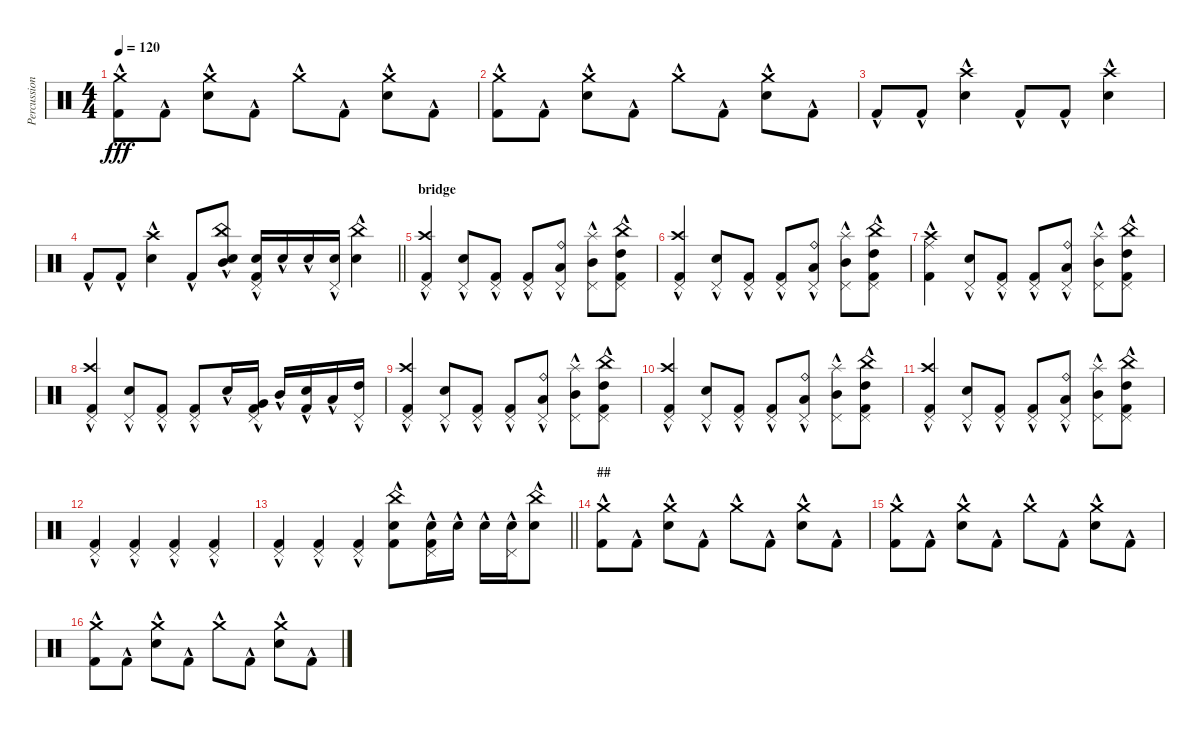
\track ("Percussion" "Percussion") {instrument percussion}
\staff {score}
\articulation defaults
\ts (4 4)
\tempo 120
\clef neutral
\ks c
("Crash medium (hit)"{hac} "Kick (hit) 2"{hac}).8{dy fff} "Kick (hit) 2"{hac}.8 ("Crash medium (hit)"{hac} "Electric Snare (hit)"{hac}).8 "Kick (hit) 2"{hac}.8 "Crash medium (hit)"{hac}.8 "Kick (hit) 2"{hac}.8 ("Crash medium (hit)"{hac} "Electric Snare (hit)"{hac}).8 "Kick (hit) 2"{hac}.8 |
("Crash medium (hit)"{hac} "Kick (hit) 2"{hac}).8 "Kick (hit) 2"{hac}.8 ("Crash medium (hit)"{hac} "Electric Snare (hit)"{hac}).8 "Kick (hit) 2"{hac}.8 "Crash medium (hit)"{hac}.8 "Kick (hit) 2"{hac}.8 ("Crash medium (hit)"{hac} "Electric Snare (hit)"{hac}).8 "Kick (hit) 2"{hac}.8 |
"Kick (hit) 2"{hac}.8 "Kick (hit) 2"{hac}.8 ("Crash high (hit)"{hac} "Electric Snare (hit)"{hac}).4 "Kick (hit) 2"{hac}.8 "Kick (hit) 2"{hac}.8 ("Crash high (hit)"{hac} "Electric Snare (hit)"{hac}).4 |
\barLineRight lightlight "Kick (hit) 2"{hac}.8 "Kick (hit) 2"{hac}.8
("Crash high (hit)"{hac} "Electric Snare (hit)"{hac}).4 "Kick (hit) 2"{hac}.8 ("China (hit)"{hac} "Electric Snare (hit)"{hac} "Mid Tom (hit)"{hac}).8 ("Pedal Hi-Hat (hit)" "Kick (hit) 2"{hac} "Electric Snare (hit)"{hac}).16 "Electric Snare (hit)"{hac}.16 "Electric Snare (hit)"{hac}.16 ("Pedal Hi-Hat (hit)" "Electric Snare (hit)"{hac}).16 ("China (hit)"{hac} "Electric Snare (hit)"{hac}).4 |
\section ("" "bridge")
("Pedal Hi-Hat (hit)" "Crash high (hit)"{hac} "Kick (hit) 2"{hac}).4 ("Pedal Hi-Hat (hit)" "Electric Snare (hit)"{hac}).8 ("Pedal Hi-Hat (hit)" "Kick (hit) 2"{hac}).8 ("Pedal Hi-Hat (hit)" "Kick (hit) 2"{hac}).8 ("Ride (bell)"{hac} "Low Tom (hit)"{hac} "Pedal Hi-Hat (hit)").8 ("Splash (hit)"{hac} "Mid Tom (hit)"{hac} "Pedal Hi-Hat (hit)").8 ("China (hit)"{hac} "High Tom (hit)"{hac} "Kick (hit) 2"{hac} "Pedal Hi-Hat (hit)").8 |
("Pedal Hi-Hat (hit)" "Crash high (hit)"{hac} "Kick (hit) 2"{hac}).4 ("Pedal Hi-Hat (hit)" "Electric Snare (hit)"{hac}).8 ("Pedal Hi-Hat (hit)" "Kick (hit) 2"{hac}).8 ("Pedal Hi-Hat (hit)" "Kick (hit) 2"{hac}).8 ("Ride (bell)"{hac} "Low Tom (hit)"{hac} "Pedal Hi-Hat (hit)").8 ("Splash (hit)"{hac} "Mid Tom (hit)"{hac} "Pedal Hi-Hat (hit)").8 ("China (hit)"{hac} "High Tom (hit)"{hac} "Kick (hit) 2"{hac} "Pedal Hi-Hat (hit)").8 |
("Ride (middle)" "Crash high (hit)"{hac} "Kick (hit) 2"{hac}).4 ("Pedal Hi-Hat (hit)" "Electric Snare (hit)"{hac}).8 ("Pedal Hi-Hat (hit)" "Kick (hit) 2"{hac}).8 ("Pedal Hi-Hat (hit)" "Kick (hit) 2"{hac}).8 ("Ride (bell)"{hac} "Low Tom (hit)"{hac} "Pedal Hi-Hat (hit)").8 ("Splash (hit)"{hac} "Mid Tom (hit)"{hac} "Pedal Hi-Hat (hit)").8 ("China (hit)"{hac} "High Tom (hit)"{hac} "Kick (hit) 2"{hac} "Pedal Hi-Hat (hit)").8 |
("Pedal Hi-Hat (hit)" "Crash high (hit)"{hac} "Kick (hit) 2"{hac}).4 ("Pedal Hi-Hat (hit)" "Electric Snare (hit)"{hac}).8 ("Pedal Hi-Hat (hit)" "Kick (hit) 2"{hac}).8 ("Pedal Hi-Hat (hit)" "Kick (hit) 2"{hac}).8 "Electric Snare (hit)"{hac}.16 ("Pedal Hi-Hat (hit)" "Very Low Tom (hit)"{hac} "Kick (hit) 2"{hac}).16 "Mid Tom (hit)"{hac}.16 ("Electric Snare (hit)"{hac} "Kick (hit) 2"{hac}).16 "Low Tom (hit)"{hac}.16 ("Pedal Hi-Hat (hit)" "High Tom (hit)"{hac}).16 |
("Pedal Hi-Hat (hit)" "Crash high (hit)"{hac} "Kick (hit) 2"{hac}).4 ("Pedal Hi-Hat (hit)" "Electric Snare (hit)"{hac}).8 ("Pedal Hi-Hat (hit)" "Kick (hit) 2"{hac}).8 ("Pedal Hi-Hat (hit)" "Kick (hit) 2"{hac}).8 ("Ride (bell)"{hac} "Low Tom (hit)"{hac} "Pedal Hi-Hat (hit)").8 ("Splash (hit)"{hac} "Mid Tom (hit)"{hac} "Pedal Hi-Hat (hit)").8 ("China (hit)"{hac} "High Tom (hit)"{hac} "Kick (hit) 2"{hac} "Pedal Hi-Hat (hit)").8 |
("Pedal Hi-Hat (hit)" "Crash high (hit)"{hac} "Kick (hit) 2"{hac}).4 ("Pedal Hi-Hat (hit)" "Electric Snare (hit)"{hac}).8 ("Pedal Hi-Hat (hit)" "Kick (hit) 2"{hac}).8 ("Pedal Hi-Hat (hit)" "Kick (hit) 2"{hac}).8 ("Ride (bell)"{hac} "Low Tom (hit)"{hac} "Pedal Hi-Hat (hit)").8 ("Splash (hit)"{hac} "Mid Tom (hit)"{hac} "Pedal Hi-Hat (hit)").8 ("China (hit)"{hac} "High Tom (hit)"{hac} "Kick (hit) 2"{hac} "Pedal Hi-Hat (hit)").8 |
("Pedal Hi-Hat (hit)" "Crash high (hit)"{hac} "Kick (hit) 2"{hac}).4 ("Pedal Hi-Hat (hit)" "Electric Snare (hit)"{hac}).8 ("Pedal Hi-Hat (hit)" "Kick (hit) 2"{hac}).8 ("Pedal Hi-Hat (hit)" "Kick (hit) 2"{hac}).8 ("Ride (bell)"{hac} "Low Tom (hit)"{hac} "Pedal Hi-Hat (hit)").8 ("Splash (hit)"{hac} "Mid Tom (hit)"{hac} "Pedal Hi-Hat (hit)").8 ("China (hit)"{hac} "High Tom (hit)"{hac} "Kick (hit) 2"{hac} "Pedal Hi-Hat (hit)").8 |
("Pedal Hi-Hat (hit)"{hac} "Kick (hit) 2"{hac}).4 ("Pedal Hi-Hat (hit)"{hac} "Kick (hit) 2"{hac}).4 ("Pedal Hi-Hat (hit)"{hac} "Kick (hit) 2"{hac}).4 ("Pedal Hi-Hat (hit)"{hac} "Kick (hit) 2"{hac}).4 |
\barLineRight lightlight
("Pedal Hi-Hat (hit)"{hac} "Kick (hit) 2"{hac}).4 ("Pedal Hi-Hat (hit)"{hac} "Kick (hit) 2"{hac}).4 ("Pedal Hi-Hat (hit)"{hac} "Kick (hit) 2"{hac}).4 ("China (hit)"{hac} "Kick (hit) 2"{hac} "Electric Snare (hit)"{hac}).8 ("Pedal Hi-Hat (hit)" "Kick (hit) 2"{hac} "Electric Snare (hit)"{hac}).16 "Electric Snare (hit)"{hac}.16 "Electric Snare (hit)"{hac}.16 ("Pedal Hi-Hat (hit)" "Electric Snare (hit)"{hac}).16 ("China (hit)"{hac} "Electric Snare (hit)"{hac}).8 |
\section ("" "##")
("Crash medium (hit)"{hac} "Kick (hit) 2"{hac}).8 "Kick (hit) 2"{hac}.8 ("Crash medium (hit)"{hac} "Electric Snare (hit)"{hac}).8 "Kick (hit) 2"{hac}.8 "Crash medium (hit)"{hac}.8 "Kick (hit) 2"{hac}.8 ("Crash medium (hit)"{hac} "Electric Snare (hit)"{hac}).8 "Kick (hit) 2"{hac}.8 |
("Crash medium (hit)"{hac} "Kick (hit) 2"{hac}).8 "Kick (hit) 2"{hac}.8 ("Crash medium (hit)"{hac} "Electric Snare (hit)"{hac}).8 "Kick (hit) 2"{hac}.8 "Crash medium (hit)"{hac}.8 "Kick (hit) 2"{hac}.8 ("Crash medium (hit)"{hac} "Electric Snare (hit)"{hac}).8 "Kick (hit) 2"{hac}.8 |
("Crash medium (hit)"{hac} "Kick (hit) 2"{hac}).8 "Kick (hit) 2"{hac}.8 ("Crash medium (hit)"{hac} "Electric Snare (hit)"{hac}).8 "Kick (hit) 2"{hac}.8 "Crash medium (hit)"{hac}.8 "Kick (hit) 2"{hac}.8 ("Crash medium (hit)"{hac} "Electric Snare (hit)"{hac}).8 "Kick (hit) 2"{hac}.8
